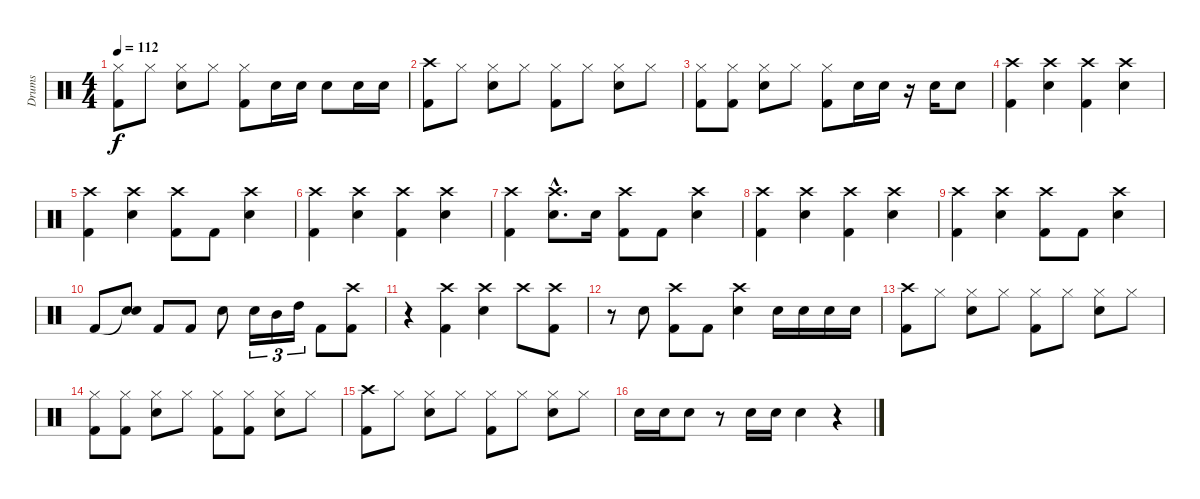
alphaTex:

\track ("Drums" "Drums") {instrument percussion}
\staff {score}
\articulation defaults
\ts (4 4)
\tempo 112
\clef neutral
\ks c
("Hi-Hat (closed)" "Kick (hit) 2").8{dy f} "Hi-Hat (closed)".8 ("Hi-Hat (closed)" "Electric Snare (hit)").8 "Hi-Hat (closed)".8 ("Hi-Hat (closed)" "Kick (hit) 2").8 "Electric Snare (hit)".16 "Electric Snare (hit)".16 "Electric Snare (hit)".8 "Electric Snare (hit)".16 "Electric Snare (hit)".16 |
("Crash high (hit)" "Kick (hit) 2").8 "Hi-Hat (closed)".8 ("Hi-Hat (closed)" "Electric Snare (hit)").8 "Hi-Hat (closed)".8 ("Hi-Hat (closed)" "Kick (hit) 2").8 "Hi-Hat (closed)".8 ("Hi-Hat (closed)" "Electric Snare (hit)").8 "Hi-Hat (closed)".8 |
("Hi-Hat (closed)" "Kick (hit) 2").8 ("Hi-Hat (closed)" "Kick (hit) 2").8 ("Hi-Hat (closed)" "Electric Snare (hit)").8 "Hi-Hat (closed)".8 ("Hi-Hat (closed)" "Kick (hit) 2").8 "Electric Snare (hit)".16 "Electric Snare (hit)".16 r.16 "Electric Snare (hit)".16 "Electric Snare (hit)".8 |
("Crash high (hit)" "Kick (hit) 2").4 ("Crash high (hit)" "Electric Snare (hit)").4 ("Crash high (hit)" "Kick (hit) 2").4 ("Crash high (hit)" "Electric Snare (hit)").4 |
("Crash high (hit)" "Kick (hit) 2").4 ("Crash high (hit)" "Electric Snare (hit)").4 ("Crash high (hit)" "Kick (hit) 2").8 "Kick (hit) 2".8 ("Crash high (hit)" "Electric Snare (hit)").4 |
("Crash high (hit)" "Kick (hit) 2").4 ("Crash high (hit)" "Electric Snare (hit)").4 ("Crash high (hit)" "Kick (hit) 2").4 ("Crash high (hit)" "Electric Snare (hit)").4 |
("Crash high (hit)" "Kick (hit) 2").4 ("Crash high (hit)"{hac} "Electric Snare (hit)"{hac}).8{d} "Electric Snare (hit)".16 ("Crash high (hit)" "Kick (hit) 2").8 "Kick (hit) 2".8 ("Crash high (hit)" "Electric Snare (hit)").4 |
("Crash high (hit)" "Kick (hit) 2").4 ("Crash high (hit)" "Electric Snare (hit)").4 ("Crash high (hit)" "Kick (hit) 2").4 ("Crash high (hit)" "Electric Snare (hit)").4 |
("Crash high (hit)" "Kick (hit) 2").4 ("Crash high (hit)" "Electric Snare (hit)").4 ("Crash high (hit)" "Kick (hit) 2").8 "Kick (hit) 2".8 ("Crash high (hit)" "Electric Snare (hit)").4 |
"Kick (hit) 2".8 ("Snare (hit)"{t} "Electric Snare (hit)").8 "Kick (hit) 2".8 "Kick (hit) 2".8 "Electric Snare (hit)".8 "Electric Snare (hit)".16{tu (3 2)} "Mid Tom (hit)".16{tu (3 2)} "High Tom (hit)".16{tu (3 2)} "Kick (hit) 2".8 ("Crash high (hit)" "Kick (hit) 2").8 |
r.4 ("Crash high (hit)" "Kick (hit) 2").4 ("Crash high (hit)" "Electric Snare (hit)").4 "Crash high (hit)".8 ("Crash high (hit)" "Kick (hit) 2").8 |
r.8 "Electric Snare (hit)".8 ("Crash high (hit)" "Kick (hit) 2").8 "Kick (hit) 2".8 ("Crash high (hit)" "Electric Snare (hit)").4 "Electric Snare (hit)".16 "Electric Snare (hit)".16 "Electric Snare (hit)".16 "Electric Snare (hit)".16 |
("Crash high (hit)" "Kick (hit) 2").8 "Hi-Hat (closed)".8 ("Hi-Hat (closed)" "Electric Snare (hit)").8 "Hi-Hat (closed)".8 ("Hi-Hat (closed)" "Kick (hit) 2").8 "Hi-Hat (closed)".8 ("Hi-Hat (closed)" "Electric Snare (hit)").8 "Hi-Hat (closed)".8 |
("Hi-Hat (closed)" "Kick (hit) 2").8 ("Hi-Hat (closed)" "Kick (hit) 2").8 ("Hi-Hat (closed)" "Electric Snare (hit)").8 "Hi-Hat (closed)".8 ("Hi-Hat (closed)" "Kick (hit) 2").8 ("Hi-Hat (closed)" "Kick (hit) 2").8 ("Hi-Hat (closed)" "Electric Snare (hit)").8 "Hi-Hat (closed)".8 |
("Crash high (hit)" "Kick (hit) 2").8 "Hi-Hat (closed)".8 ("Hi-Hat (closed)" "Electric Snare (hit)").8 "Hi-Hat (closed)".8 ("Hi-Hat (closed)" "Kick (hit) 2").8 "Hi-Hat (closed)".8 ("Hi-Hat (closed)" "Electric Snare (hit)").8 "Hi-Hat (closed)".8 |
"Electric Snare (hit)".16 "Electric Snare (hit)".16 "Electric Snare (hit)".8 r.8 "Electric Snare (hit)".16 "Electric Snare (hit)".16 "Electric Snare (hit)".4 r.4
